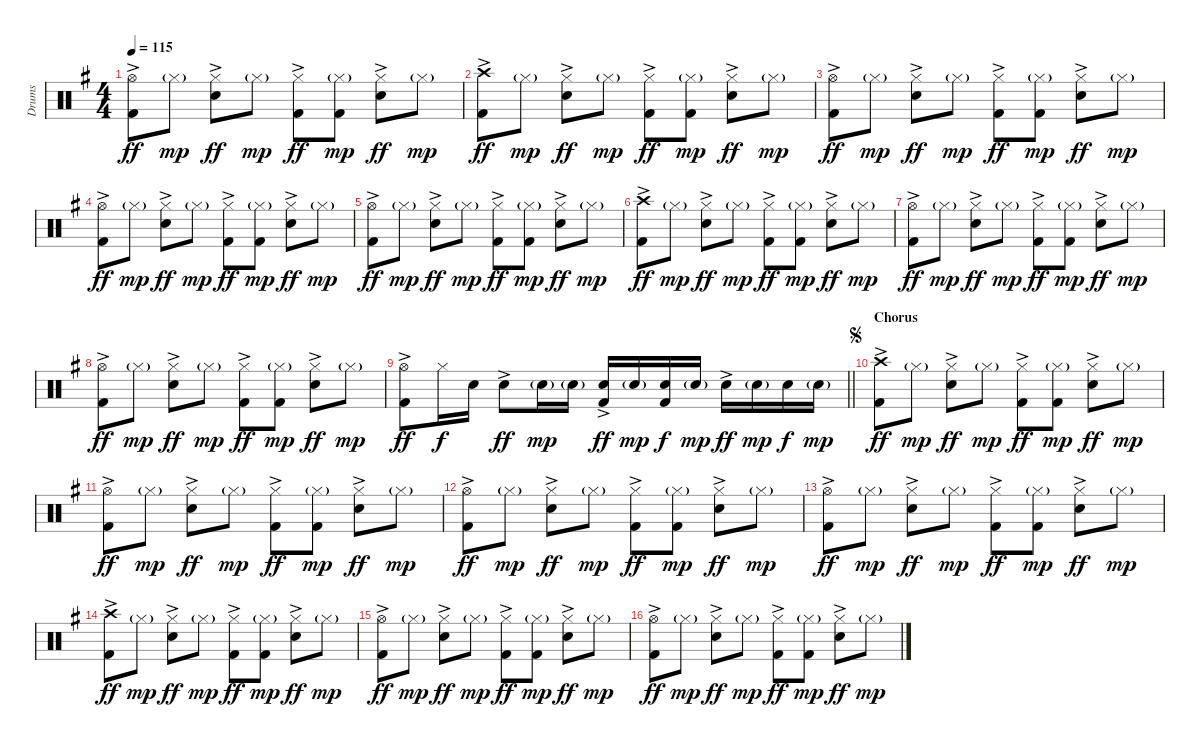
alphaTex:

\track ("Drums" "Drums") {instrument percussion}
\staff {score}
\articulation defaults
\ts (4 4)
\tempo 115
\clef neutral
\ks g
("Hi-Hat (open)" "Kick (hit) 2"{ac}).8{dy ff} "Hi-Hat (closed)"{g}.8{dy mp} ("Hi-Hat (closed)" "Snare (hit) 2"{ac}).8{dy ff} "Hi-Hat (closed)"{g}.8{dy mp} ("Hi-Hat (closed)" "Kick (hit) 2"{ac}).8{dy ff} ("Hi-Hat (closed)"{g} "Kick (hit) 2").8{dy mp} ("Hi-Hat (closed)" "Snare (hit) 2"{ac}).8{dy ff} "Hi-Hat (closed)"{g}.8{dy mp} |
("Crash high (hit)" "Kick (hit) 2"{ac}).8{dy ff} "Hi-Hat (closed)"{g}.8{dy mp} ("Hi-Hat (closed)" "Snare (hit) 2"{ac}).8{dy ff} "Hi-Hat (closed)"{g}.8{dy mp} ("Hi-Hat (closed)" "Kick (hit) 2"{ac}).8{dy ff} ("Hi-Hat (closed)"{g} "Kick (hit) 2").8{dy mp} ("Hi-Hat (closed)" "Snare (hit) 2"{ac}).8{dy ff} "Hi-Hat (closed)"{g}.8{dy mp} |
("Hi-Hat (open)" "Kick (hit) 2"{ac}).8{dy ff} "Hi-Hat (closed)"{g}.8{dy mp} ("Hi-Hat (closed)" "Snare (hit) 2"{ac}).8{dy ff} "Hi-Hat (closed)"{g}.8{dy mp} ("Hi-Hat (closed)" "Kick (hit) 2"{ac}).8{dy ff} ("Hi-Hat (closed)"{g} "Kick (hit) 2").8{dy mp} ("Hi-Hat (closed)" "Snare (hit) 2"{ac}).8{dy ff} "Hi-Hat (closed)"{g}.8{dy mp} |
("Hi-Hat (open)" "Kick (hit) 2"{ac}).8{dy ff} "Hi-Hat (closed)"{g}.8{dy mp} ("Hi-Hat (closed)" "Snare (hit) 2"{ac}).8{dy ff} "Hi-Hat (closed)"{g}.8{dy mp} ("Hi-Hat (closed)" "Kick (hit) 2"{ac}).8{dy ff} ("Hi-Hat (closed)"{g} "Kick (hit) 2").8{dy mp} ("Hi-Hat (closed)" "Snare (hit) 2"{ac}).8{dy ff} "Hi-Hat (closed)"{g}.8{dy mp} |
("Hi-Hat (open)" "Kick (hit) 2"{ac}).8{dy ff} "Hi-Hat (closed)"{g}.8{dy mp} ("Hi-Hat (closed)" "Snare (hit) 2"{ac}).8{dy ff} "Hi-Hat (closed)"{g}.8{dy mp} ("Hi-Hat (closed)" "Kick (hit) 2"{ac}).8{dy ff} ("Hi-Hat (closed)"{g} "Kick (hit) 2").8{dy mp} ("Hi-Hat (closed)" "Snare (hit) 2"{ac}).8{dy ff} "Hi-Hat (closed)"{g}.8{dy mp} |
("Crash high (hit)" "Kick (hit) 2"{ac}).8{dy ff} "Hi-Hat (closed)"{g}.8{dy mp} ("Hi-Hat (closed)" "Snare (hit) 2"{ac}).8{dy ff} "Hi-Hat (closed)"{g}.8{dy mp} ("Hi-Hat (closed)" "Kick (hit) 2"{ac}).8{dy ff} ("Hi-Hat (closed)"{g} "Kick (hit) 2").8{dy mp} ("Hi-Hat (closed)" "Snare (hit) 2"{ac}).8{dy ff} "Hi-Hat (closed)"{g}.8{dy mp} |
("Hi-Hat (open)" "Kick (hit) 2"{ac}).8{dy ff} "Hi-Hat (closed)"{g}.8{dy mp} ("Hi-Hat (closed)" "Snare (hit) 2"{ac}).8{dy ff} "Hi-Hat (closed)"{g}.8{dy mp} ("Hi-Hat (closed)" "Kick (hit) 2"{ac}).8{dy ff} ("Hi-Hat (closed)"{g} "Kick (hit) 2").8{dy mp} ("Hi-Hat (closed)" "Snare (hit) 2"{ac}).8{dy ff} "Hi-Hat (closed)"{g}.8{dy mp} |
("Hi-Hat (open)" "Kick (hit) 2"{ac}).8{dy ff} "Hi-Hat (closed)"{g}.8{dy mp} ("Hi-Hat (closed)" "Snare (hit) 2"{ac}).8{dy ff} "Hi-Hat (closed)"{g}.8{dy mp} ("Hi-Hat (closed)" "Kick (hit) 2"{ac}).8{dy ff} ("Hi-Hat (closed)"{g} "Kick (hit) 2").8{dy mp} ("Hi-Hat (closed)" "Snare (hit) 2"{ac}).8{dy ff} "Hi-Hat (closed)"{g}.8{dy mp} |
\barLineRight lightlight
("Hi-Hat (open)" "Kick (hit) 2"{ac}).8{dy ff} "Hi-Hat (closed)".16{dy f} "Snare (hit) 2".16 "Snare (hit) 2"{ac}.8{dy ff} "Snare (hit) 2"{g}.16{dy mp} "Snare (hit) 2"{g}.16 ("Snare (hit) 2" "Kick (hit) 2"{ac}).16{dy ff} "Snare (hit) 2"{g}.16{dy mp} ("Snare (hit) 2" "Kick (hit) 2").16{dy f} "Snare (hit) 2"{g}.16{dy mp} "Snare (hit) 2"{ac}.16{dy ff} "Snare (hit) 2"{g}.16{dy mp} "Snare (hit) 2".16{dy f} "Snare (hit) 2"{g}.16{dy mp} |
\section ("" "Chorus")
\jump segno
("Crash high (hit)" "Kick (hit) 2"{ac}).8{dy ff} "Hi-Hat (closed)"{g}.8{dy mp} ("Hi-Hat (closed)" "Snare (hit) 2"{ac}).8{dy ff} "Hi-Hat (closed)"{g}.8{dy mp} ("Hi-Hat (closed)" "Kick (hit) 2"{ac}).8{dy ff} ("Hi-Hat (closed)"{g} "Kick (hit) 2").8{dy mp} ("Hi-Hat (closed)" "Snare (hit) 2"{ac}).8{dy ff} "Hi-Hat (closed)"{g}.8{dy mp} |
("Hi-Hat (open)" "Kick (hit) 2"{ac}).8{dy ff} "Hi-Hat (closed)"{g}.8{dy mp} ("Hi-Hat (closed)" "Snare (hit) 2"{ac}).8{dy ff} "Hi-Hat (closed)"{g}.8{dy mp} ("Hi-Hat (closed)" "Kick (hit) 2"{ac}).8{dy ff} ("Hi-Hat (closed)"{g} "Kick (hit) 2").8{dy mp} ("Hi-Hat (closed)" "Snare (hit) 2"{ac}).8{dy ff} "Hi-Hat (closed)"{g}.8{dy mp} |
("Hi-Hat (open)" "Kick (hit) 2"{ac}).8{dy ff} "Hi-Hat (closed)"{g}.8{dy mp} ("Hi-Hat (closed)" "Snare (hit) 2"{ac}).8{dy ff} "Hi-Hat (closed)"{g}.8{dy mp} ("Hi-Hat (closed)" "Kick (hit) 2"{ac}).8{dy ff} ("Hi-Hat (closed)"{g} "Kick (hit) 2").8{dy mp} ("Hi-Hat (closed)" "Snare (hit) 2"{ac}).8{dy ff} "Hi-Hat (closed)"{g}.8{dy mp} |
("Hi-Hat (open)" "Kick (hit) 2"{ac}).8{dy ff} "Hi-Hat (closed)"{g}.8{dy mp} ("Hi-Hat (closed)" "Snare (hit) 2"{ac}).8{dy ff} "Hi-Hat (closed)"{g}.8{dy mp} ("Hi-Hat (closed)" "Kick (hit) 2"{ac}).8{dy ff} ("Hi-Hat (closed)"{g} "Kick (hit) 2").8{dy mp} ("Hi-Hat (closed)" "Snare (hit) 2"{ac}).8{dy ff} "Hi-Hat (closed)"{g}.8{dy mp} |
("Crash high (hit)" "Kick (hit) 2"{ac}).8{dy ff} "Hi-Hat (closed)"{g}.8{dy mp} ("Hi-Hat (closed)" "Snare (hit) 2"{ac}).8{dy ff} "Hi-Hat (closed)"{g}.8{dy mp} ("Hi-Hat (closed)" "Kick (hit) 2"{ac}).8{dy ff} ("Hi-Hat (closed)"{g} "Kick (hit) 2").8{dy mp} ("Hi-Hat (closed)" "Snare (hit) 2"{ac}).8{dy ff} "Hi-Hat (closed)"{g}.8{dy mp} |
("Hi-Hat (open)" "Kick (hit) 2"{ac}).8{dy ff} "Hi-Hat (closed)"{g}.8{dy mp} ("Hi-Hat (closed)" "Snare (hit) 2"{ac}).8{dy ff} "Hi-Hat (closed)"{g}.8{dy mp} ("Hi-Hat (closed)" "Kick (hit) 2"{ac}).8{dy ff} ("Hi-Hat (closed)"{g} "Kick (hit) 2").8{dy mp} ("Hi-Hat (closed)" "Snare (hit) 2"{ac}).8{dy ff} "Hi-Hat (closed)"{g}.8{dy mp} |
("Hi-Hat (open)" "Kick (hit) 2"{ac}).8{dy ff} "Hi-Hat (closed)"{g}.8{dy mp} ("Hi-Hat (closed)" "Snare (hit) 2"{ac}).8{dy ff} "Hi-Hat (closed)"{g}.8{dy mp} ("Hi-Hat (closed)" "Kick (hit) 2"{ac}).8{dy ff} ("Hi-Hat (closed)"{g} "Kick (hit) 2").8{dy mp} ("Hi-Hat (closed)" "Snare (hit) 2"{ac}).8{dy ff} "Hi-Hat (closed)"{g}.8{dy mp}
